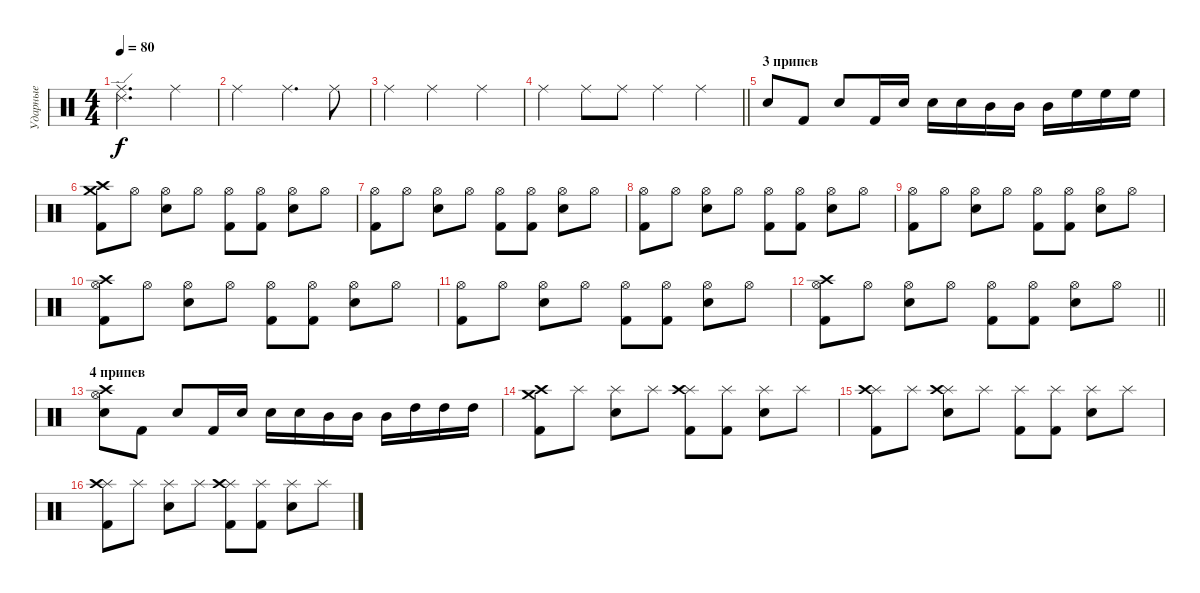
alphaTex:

\track ("Ударные" "Ударные") {instrument percussion}
\staff {score}
\articulation defaults
\ts (4 4)
\tempo 80
\clef neutral
\ks c
("Ride (edge) 2" "Ride (middle)").2{d dy f} "Ride (middle)".4 |
"Ride (middle)".2 "Ride (middle)".4{d} "Ride (middle)".8 |
"Ride (middle)".4 "Ride (middle)".2 "Ride (middle)".4 |
\barLineRight lightlight "Ride (middle)".4 "Ride (middle)".8 "Ride (middle)".8 "Ride (middle)".4 "Ride (middle)".4
|
\section ("" "3 припев")
"Snare (hit) 2".8{volume 16} "Kick (hit) 2".8 "Snare (hit) 2".8 "Kick (hit) 2".16 "Snare (hit) 2".16 "Snare (hit) 2".16 "Snare (hit) 2".16 "Mid Tom (hit)".16 "Mid Tom (hit)".16 "Mid Tom (hit)".16 "High Floor Tom (hit)".16 "High Floor Tom (hit)".16 "High Floor Tom (hit)".16 |
("Crash high (hit)" "Crash medium (hit)" "Kick (hit) 2").8 "Hi-Hat (open)".8 ("Hi-Hat (open)" "Snare (hit) 2").8 "Hi-Hat (open)".8 ("Hi-Hat (open)" "Kick (hit) 2").8 ("Hi-Hat (open)" "Kick (hit) 2").8 ("Hi-Hat (open)" "Snare (hit) 2").8 "Hi-Hat (open)".8 |
("Hi-Hat (open)" "Kick (hit) 2").8 "Hi-Hat (open)".8 ("Hi-Hat (open)" "Snare (hit) 2").8 "Hi-Hat (open)".8 ("Hi-Hat (open)" "Kick (hit) 2").8 ("Hi-Hat (open)" "Kick (hit) 2").8 ("Hi-Hat (open)" "Snare (hit) 2").8 "Hi-Hat (open)".8 |
("Hi-Hat (open)" "Kick (hit) 2").8 "Hi-Hat (open)".8 ("Hi-Hat (open)" "Snare (hit) 2").8 "Hi-Hat (open)".8 ("Hi-Hat (open)" "Kick (hit) 2").8 ("Hi-Hat (open)" "Kick (hit) 2").8 ("Hi-Hat (open)" "Snare (hit) 2").8 "Hi-Hat (open)".8 |
("Hi-Hat (open)" "Kick (hit) 2").8 "Hi-Hat (open)".8 ("Hi-Hat (open)" "Snare (hit) 2").8 "Hi-Hat (open)".8 ("Hi-Hat (open)" "Kick (hit) 2").8 ("Hi-Hat (open)" "Kick (hit) 2").8 ("Hi-Hat (open)" "Snare (hit) 2").8 "Hi-Hat (open)".8 |
("Hi-Hat (open)" "Crash high (hit)" "Kick (hit) 2").8 "Hi-Hat (open)".8 ("Hi-Hat (open)" "Snare (hit) 2").8 "Hi-Hat (open)".8 ("Hi-Hat (open)" "Kick (hit) 2").8 ("Hi-Hat (open)" "Kick (hit) 2").8 ("Hi-Hat (open)" "Snare (hit) 2").8 "Hi-Hat (open)".8 |
("Hi-Hat (open)" "Kick (hit) 2").8 "Hi-Hat (open)".8 ("Hi-Hat (open)" "Snare (hit) 2").8 "Hi-Hat (open)".8 ("Hi-Hat (open)" "Kick (hit) 2").8 ("Hi-Hat (open)" "Kick (hit) 2").8 ("Hi-Hat (open)" "Snare (hit) 2").8 "Hi-Hat (open)".8 |
\barLineRight lightlight
("Hi-Hat (open)" "Crash high (hit)" "Kick (hit) 2").8 "Hi-Hat (open)".8 ("Hi-Hat (open)" "Snare (hit) 2").8 "Hi-Hat (open)".8 ("Hi-Hat (open)" "Kick (hit) 2").8 ("Hi-Hat (open)" "Kick (hit) 2").8 ("Hi-Hat (open)" "Snare (hit) 2").8 "Hi-Hat (open)".8 |
\section ("" "4 припев")
("Hi-Hat (open)" "Crash high (hit)" "Snare (hit) 2").8 "Kick (hit) 2".8 "Snare (hit) 2".8 "Kick (hit) 2".16 "Snare (hit) 2".16 "Snare (hit) 2".16 "Snare (hit) 2".16 "Mid Tom (hit)".16 "Mid Tom (hit)".16 "Mid Tom (hit)".16 "High Tom (hit)".16 "High Tom (hit)".16 "High Tom (hit)".16 |
("Crash high (hit)" "Crash medium (hit)" "Kick (hit) 2").8 "Splash (hit)".8 ("Splash (hit)" "Snare (hit) 2").8 "Splash (hit)".8 ("Splash (hit)" "Crash high (hit)" "Kick (hit) 2").8 ("Splash (hit)" "Kick (hit) 2").8 ("Splash (hit)" "Snare (hit) 2").8 "Splash (hit)".8 |
("Splash (hit)" "Crash high (hit)" "Kick (hit) 2").8 "Splash (hit)".8 ("Splash (hit)" "Crash high (hit)" "Snare (hit) 2").8 "Splash (hit)".8 ("Splash (hit)" "Kick (hit) 2").8 ("Splash (hit)" "Kick (hit) 2").8 ("Splash (hit)" "Snare (hit) 2").8 "Splash (hit)".8 |
("Splash (hit)" "Crash high (hit)" "Kick (hit) 2").8 "Splash (hit)".8 ("Splash (hit)" "Snare (hit) 2").8 "Splash (hit)".8 ("Splash (hit)" "Crash high (hit)" "Kick (hit) 2").8 ("Splash (hit)" "Kick (hit) 2").8 ("Splash (hit)" "Snare (hit) 2").8 "Splash (hit)".8
